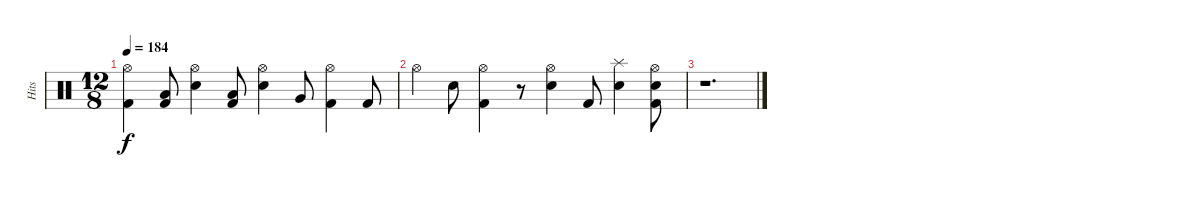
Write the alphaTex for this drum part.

\track ("Hits" "Hits") {instrument percussion}
\staff {score}
\articulation defaults
\ts (12 8)
\tempo 184
\clef neutral
\ks c
("Hi-Hat (open)" "Kick (hit) 2").4{dy f} ("Low Tom (hit)" "Kick (hit) 2").8 ("Hi-Hat (open)" "Electric Snare (hit)").4 ("Low Tom (hit)" "Kick (hit) 2").8 ("Hi-Hat (open)" "Electric Snare (hit)").4 "Very Low Tom (hit)".8 ("Hi-Hat (open)" "Kick (hit) 2").4 "Kick (hit) 2".8 |
"Hi-Hat (open)".4 "Electric Snare (hit)".8 ("Hi-Hat (open)" "Kick (hit) 2").4 r.8 ("Hi-Hat (open)" "Electric Snare (hit)").4 "Kick (hit) 2".8 ("Splash (hit)" "Electric Snare (hit)").4 ("Hi-Hat (open)" "Electric Snare (hit)" "Kick (hit) 2").8 |
r.1{d}
